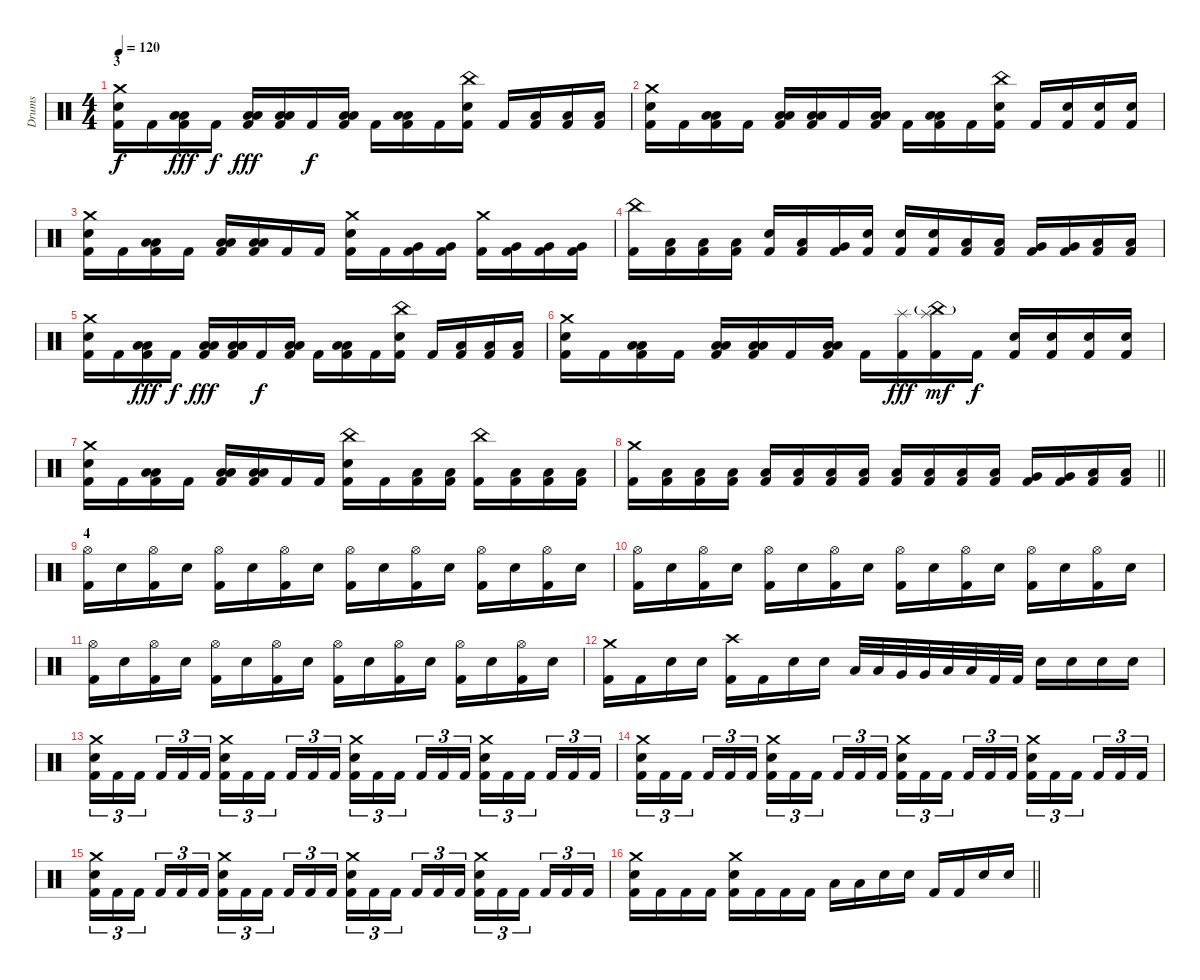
\track ("Drums" "Drums") {instrument percussion}
\staff {score}
\articulation defaults
\ts (4 4)
\section ("" "3")
\tempo 120
\clef neutral
\ks c
("Crash medium (hit)" "Electric Snare (hit)" "Kick (hit) 2").16{dy f} "Kick (hit) 2".16 ("Low Tom (hit)" "Low Floor Tom (hit)" "Kick (hit) 2").16{dy fff} "Kick (hit) 2".16{dy f} ("Low Tom (hit)" "Low Floor Tom (hit)" "Kick (hit) 2").16{dy fff} ("Low Tom (hit)" "Low Floor Tom (hit)" "Kick (hit) 2").16 "Kick (hit) 2".16{dy f} ("Low Tom (hit)" "Low Floor Tom (hit)" "Kick (hit) 2").16 "Kick (hit) 2".16 ("Low Tom (hit)" "Low Floor Tom (hit)" "Kick (hit) 2").16 "Kick (hit) 2".16 ("China (hit)" "Electric Snare (hit)" "Kick (hit) 2").16 "Kick (hit) 2".16 ("Low Tom (hit)" "Kick (hit) 2").16 ("Low Floor Tom (hit)" "Kick (hit) 2").16 ("Low Tom (hit)" "Kick (hit) 2").16 |
("Crash medium (hit)" "Electric Snare (hit)" "Kick (hit) 2").16 "Kick (hit) 2".16 ("Low Tom (hit)" "Low Floor Tom (hit)" "Kick (hit) 2").16 "Kick (hit) 2".16 ("Low Tom (hit)" "Low Floor Tom (hit)" "Kick (hit) 2").16 ("Low Tom (hit)" "Low Floor Tom (hit)" "Kick (hit) 2").16 "Kick (hit) 2".16 ("Low Tom (hit)" "Low Floor Tom (hit)" "Kick (hit) 2").16 "Kick (hit) 2".16 ("Low Tom (hit)" "Low Floor Tom (hit)" "Kick (hit) 2").16 "Kick (hit) 2".16 ("China (hit)" "Electric Snare (hit)" "Kick (hit) 2").16 "Kick (hit) 2".16 ("Electric Snare (hit)" "Kick (hit) 2").16 ("Electric Snare (hit)" "Kick (hit) 2").16 ("Electric Snare (hit)" "Kick (hit) 2").16 |
("Crash medium (hit)" "Electric Snare (hit)" "Kick (hit) 2").16 "Kick (hit) 2".16 ("Low Tom (hit)" "Low Floor Tom (hit)" "Kick (hit) 2").16 "Kick (hit) 2".16 ("Low Tom (hit)" "Low Floor Tom (hit)" "Kick (hit) 2").16 ("Low Tom (hit)" "Low Floor Tom (hit)" "Kick (hit) 2").16 "Kick (hit) 2".16 "Kick (hit) 2".16 ("Crash medium (hit)" "Electric Snare (hit)" "Kick (hit) 2").16 "Kick (hit) 2".16 ("Very Low Tom (hit)" "Kick (hit) 2").16 ("Very Low Tom (hit)" "Kick (hit) 2").16 ("Crash medium (hit)" "Kick (hit) 2").16 ("Very Low Tom (hit)" "Kick (hit) 2").16 ("Very Low Tom (hit)" "Kick (hit) 2").16 ("Very Low Tom (hit)" "Kick (hit) 2").16 |
("China (hit)" "Kick (hit) 2").16 ("Low Floor Tom (hit)" "Kick (hit) 2").16 ("Low Floor Tom (hit)" "Kick (hit) 2").16 ("Low Floor Tom (hit)" "Kick (hit) 2").16 ("Electric Snare (hit)" "Kick (hit) 2").16 ("Low Floor Tom (hit)" "Kick (hit) 2").16 ("Very Low Tom (hit)" "Kick (hit) 2").16 ("Electric Snare (hit)" "Kick (hit) 2").16 ("Electric Snare (hit)" "Kick (hit) 2").16 ("Electric Snare (hit)" "Kick (hit) 2").16 ("Low Tom (hit)" "Kick (hit) 2").16 ("Low Tom (hit)" "Kick (hit) 2").16 ("Very Low Tom (hit)" "Kick (hit) 2").16 ("Very Low Tom (hit)" "Kick (hit) 2").16 ("Low Floor Tom (hit)" "Kick (hit) 2").16 ("Low Floor Tom (hit)" "Kick (hit) 2").16 |
("Crash medium (hit)" "Electric Snare (hit)" "Kick (hit) 2").16 "Kick (hit) 2".16 ("Low Tom (hit)" "Low Floor Tom (hit)" "Kick (hit) 2").16{dy fff} "Kick (hit) 2".16{dy f} ("Low Tom (hit)" "Low Floor Tom (hit)" "Kick (hit) 2").16{dy fff} ("Low Tom (hit)" "Low Floor Tom (hit)" "Kick (hit) 2").16 "Kick (hit) 2".16{dy f} ("Low Tom (hit)" "Low Floor Tom (hit)" "Kick (hit) 2").16 "Kick (hit) 2".16 ("Low Tom (hit)" "Low Floor Tom (hit)" "Kick (hit) 2").16 "Kick (hit) 2".16 ("China (hit)" "Electric Snare (hit)" "Kick (hit) 2").16 "Kick (hit) 2".16 ("Low Tom (hit)" "Kick (hit) 2").16 ("Low Floor Tom (hit)" "Kick (hit) 2").16 ("Low Tom (hit)" "Kick (hit) 2").16 |
("Crash medium (hit)" "Electric Snare (hit)" "Kick (hit) 2").16 "Kick (hit) 2".16 ("Low Tom (hit)" "Low Floor Tom (hit)" "Kick (hit) 2").16 "Kick (hit) 2".16 ("Low Tom (hit)" "Low Floor Tom (hit)" "Kick (hit) 2").16 ("Low Tom (hit)" "Low Floor Tom (hit)" "Kick (hit) 2").16 "Kick (hit) 2".16 ("Low Tom (hit)" "Low Floor Tom (hit)" "Kick (hit) 2").16 "Kick (hit) 2".16 ("Splash (hit)" "Kick (hit) 2").16{dy fff} ("Splash (hit)" "China (hit)"{g} "Kick (hit) 2").16{dy mf} "Kick (hit) 2".16{dy f} ("Electric Snare (hit)" "Kick (hit) 2").16 ("Electric Snare (hit)" "Kick (hit) 2").16 ("Electric Snare (hit)" "Kick (hit) 2").16 ("Electric Snare (hit)" "Kick (hit) 2").16 |
("Crash medium (hit)" "Electric Snare (hit)" "Kick (hit) 2").16 "Kick (hit) 2".16 ("Low Tom (hit)" "Low Floor Tom (hit)" "Kick (hit) 2").16 "Kick (hit) 2".16 ("Low Tom (hit)" "Low Floor Tom (hit)" "Kick (hit) 2").16 ("Low Tom (hit)" "Low Floor Tom (hit)" "Kick (hit) 2").16 "Kick (hit) 2".16 "Kick (hit) 2".16 ("China (hit)" "Electric Snare (hit)" "Kick (hit) 2").16 "Kick (hit) 2".16 ("Low Floor Tom (hit)" "Kick (hit) 2").16 ("Low Floor Tom (hit)" "Kick (hit) 2").16 ("China (hit)" "Kick (hit) 2").16 ("Low Floor Tom (hit)" "Kick (hit) 2").16 ("Low Floor Tom (hit)" "Kick (hit) 2").16 ("Low Floor Tom (hit)" "Kick (hit) 2").16 |
\barLineRight lightlight
("Crash medium (hit)" "Kick (hit) 2").16 ("Low Floor Tom (hit)" "Kick (hit) 2").16 ("Low Floor Tom (hit)" "Kick (hit) 2").16 ("Low Floor Tom (hit)" "Kick (hit) 2").16 ("Low Floor Tom (hit)" "Kick (hit) 2").16 ("Low Floor Tom (hit)" "Kick (hit) 2").16 ("Low Floor Tom (hit)" "Kick (hit) 2").16 ("Low Floor Tom (hit)" "Kick (hit) 2").16 ("Low Tom (hit)" "Kick (hit) 2").16 ("Low Tom (hit)" "Kick (hit) 2").16 ("Low Tom (hit)" "Kick (hit) 2").16 ("Low Tom (hit)" "Kick (hit) 2").16 ("Very Low Tom (hit)" "Kick (hit) 2").16 ("Very Low Tom (hit)" "Kick (hit) 2").16 ("Low Floor Tom (hit)" "Kick (hit) 2").16 ("Low Floor Tom (hit)" "Kick (hit) 2").16 |
\section ("" "4")
("Hi-Hat (open)" "Kick (hit) 2").16 "Electric Snare (hit)".16 ("Hi-Hat (open)" "Kick (hit) 2").16 "Electric Snare (hit)".16 ("Hi-Hat (open)" "Kick (hit) 2").16 "Electric Snare (hit)".16 ("Hi-Hat (open)" "Kick (hit) 2").16 "Electric Snare (hit)".16 ("Hi-Hat (open)" "Kick (hit) 2").16 "Electric Snare (hit)".16 ("Hi-Hat (open)" "Kick (hit) 2").16 "Electric Snare (hit)".16 ("Hi-Hat (open)" "Kick (hit) 2").16 "Electric Snare (hit)".16 ("Hi-Hat (open)" "Kick (hit) 2").16 "Electric Snare (hit)".16 |
("Hi-Hat (open)" "Kick (hit) 2").16 "Electric Snare (hit)".16 ("Hi-Hat (open)" "Kick (hit) 2").16 "Electric Snare (hit)".16 ("Hi-Hat (open)" "Kick (hit) 2").16 "Electric Snare (hit)".16 ("Hi-Hat (open)" "Kick (hit) 2").16 "Electric Snare (hit)".16 ("Hi-Hat (open)" "Kick (hit) 2").16 "Electric Snare (hit)".16 ("Hi-Hat (open)" "Kick (hit) 2").16 "Electric Snare (hit)".16 ("Hi-Hat (open)" "Kick (hit) 2").16 "Electric Snare (hit)".16 ("Hi-Hat (open)" "Kick (hit) 2").16 "Electric Snare (hit)".16 |
("Hi-Hat (open)" "Kick (hit) 2").16 "Electric Snare (hit)".16 ("Hi-Hat (open)" "Kick (hit) 2").16 "Electric Snare (hit)".16 ("Hi-Hat (open)" "Kick (hit) 2").16 "Electric Snare (hit)".16 ("Hi-Hat (open)" "Kick (hit) 2").16 "Electric Snare (hit)".16 ("Hi-Hat (open)" "Kick (hit) 2").16 "Electric Snare (hit)".16 ("Hi-Hat (open)" "Kick (hit) 2").16 "Electric Snare (hit)".16 ("Hi-Hat (open)" "Kick (hit) 2").16 "Electric Snare (hit)".16 ("Hi-Hat (open)" "Kick (hit) 2").16 "Electric Snare (hit)".16 |
("Crash medium (hit)" "Kick (hit) 2").16 "Kick (hit) 2".16 "Electric Snare (hit)".16 "Electric Snare (hit)".16 ("Crash high (hit)" "Kick (hit) 2").16 "Kick (hit) 2".16 "Electric Snare (hit)".16 "Electric Snare (hit)".16 "Low Tom (hit)".32 "Low Tom (hit)".32 "Very Low Tom (hit)".32 "Very Low Tom (hit)".32 "Low Floor Tom (hit)".32 "Low Floor Tom (hit)".32 "Kick (hit) 2".32 "Kick (hit) 2".32 "Electric Snare (hit)".16 "Electric Snare (hit)".16 "Electric Snare (hit)".16 "Electric Snare (hit)".16 |
("Crash medium (hit)" "Electric Snare (hit)" "Kick (hit) 2").16{tu (3 2)} "Kick (hit) 2".16{tu (3 2)} "Kick (hit) 2".16{tu (3 2) beam splitsecondary} "Kick (hit) 2".16{tu (3 2)} "Kick (hit) 2".16{tu (3 2)} "Kick (hit) 2".16{tu (3 2)} ("Crash medium (hit)" "Electric Snare (hit)" "Kick (hit) 2").16{tu (3 2)} "Kick (hit) 2".16{tu (3 2)} "Kick (hit) 2".16{tu (3 2) beam splitsecondary} "Kick (hit) 2".16{tu (3 2)} "Kick (hit) 2".16{tu (3 2)} "Kick (hit) 2".16{tu (3 2)} ("Crash medium (hit)" "Electric Snare (hit)" "Kick (hit) 2").16{tu (3 2)} "Kick (hit) 2".16{tu (3 2)} "Kick (hit) 2".16{tu (3 2) beam splitsecondary} "Kick (hit) 2".16{tu (3 2)} "Kick (hit) 2".16{tu (3 2)} "Kick (hit) 2".16{tu (3 2)} ("Crash medium (hit)" "Electric Snare (hit)" "Kick (hit) 2").16{tu (3 2)} "Kick (hit) 2".16{tu (3 2)} "Kick (hit) 2".16{tu (3 2) beam splitsecondary} "Kick (hit) 2".16{tu (3 2)} "Kick (hit) 2".16{tu (3 2)} "Kick (hit) 2".16{tu (3 2)} |
("Crash medium (hit)" "Electric Snare (hit)" "Kick (hit) 2").16{tu (3 2)} "Kick (hit) 2".16{tu (3 2)} "Kick (hit) 2".16{tu (3 2) beam splitsecondary} "Kick (hit) 2".16{tu (3 2)} "Kick (hit) 2".16{tu (3 2)} "Kick (hit) 2".16{tu (3 2)} ("Crash medium (hit)" "Electric Snare (hit)" "Kick (hit) 2").16{tu (3 2)} "Kick (hit) 2".16{tu (3 2)} "Kick (hit) 2".16{tu (3 2) beam splitsecondary} "Kick (hit) 2".16{tu (3 2)} "Kick (hit) 2".16{tu (3 2)} "Kick (hit) 2".16{tu (3 2)} ("Crash medium (hit)" "Electric Snare (hit)" "Kick (hit) 2").16{tu (3 2)} "Kick (hit) 2".16{tu (3 2)} "Kick (hit) 2".16{tu (3 2) beam splitsecondary} "Kick (hit) 2".16{tu (3 2)} "Kick (hit) 2".16{tu (3 2)} "Kick (hit) 2".16{tu (3 2)} ("Crash medium (hit)" "Electric Snare (hit)" "Kick (hit) 2").16{tu (3 2)} "Kick (hit) 2".16{tu (3 2)} "Kick (hit) 2".16{tu (3 2) beam splitsecondary} "Kick (hit) 2".16{tu (3 2)} "Kick (hit) 2".16{tu (3 2)} "Kick (hit) 2".16{tu (3 2)} |
("Crash medium (hit)" "Electric Snare (hit)" "Kick (hit) 2").16{tu (3 2)} "Kick (hit) 2".16{tu (3 2)} "Kick (hit) 2".16{tu (3 2) beam splitsecondary} "Kick (hit) 2".16{tu (3 2)} "Kick (hit) 2".16{tu (3 2)} "Kick (hit) 2".16{tu (3 2)} ("Crash medium (hit)" "Electric Snare (hit)" "Kick (hit) 2").16{tu (3 2)} "Kick (hit) 2".16{tu (3 2)} "Kick (hit) 2".16{tu (3 2) beam splitsecondary} "Kick (hit) 2".16{tu (3 2)} "Kick (hit) 2".16{tu (3 2)} "Kick (hit) 2".16{tu (3 2)} ("Crash medium (hit)" "Electric Snare (hit)" "Kick (hit) 2").16{tu (3 2)} "Kick (hit) 2".16{tu (3 2)} "Kick (hit) 2".16{tu (3 2) beam splitsecondary} "Kick (hit) 2".16{tu (3 2)} "Kick (hit) 2".16{tu (3 2)} "Kick (hit) 2".16{tu (3 2)} ("Crash medium (hit)" "Electric Snare (hit)" "Kick (hit) 2").16{tu (3 2)} "Kick (hit) 2".16{tu (3 2)} "Kick (hit) 2".16{tu (3 2) beam splitsecondary} "Kick (hit) 2".16{tu (3 2)} "Kick (hit) 2".16{tu (3 2)} "Kick (hit) 2".16{tu (3 2)} |
\barLineRight lightlight
("Crash medium (hit)" "Electric Snare (hit)" "Kick (hit) 2").16 "Kick (hit) 2".16 "Kick (hit) 2".16 "Kick (hit) 2".16 ("Crash medium (hit)" "Electric Snare (hit)" "Kick (hit) 2").16 "Kick (hit) 2".16 "Kick (hit) 2".16 "Kick (hit) 2".16 "Low Tom (hit)".16 "Low Tom (hit)".16 "Electric Snare (hit)".16 "Electric Snare (hit)".16 "Kick (hit) 2".16 "Kick (hit) 2".16 "Electric Snare (hit)".16 "Electric Snare (hit)".16
